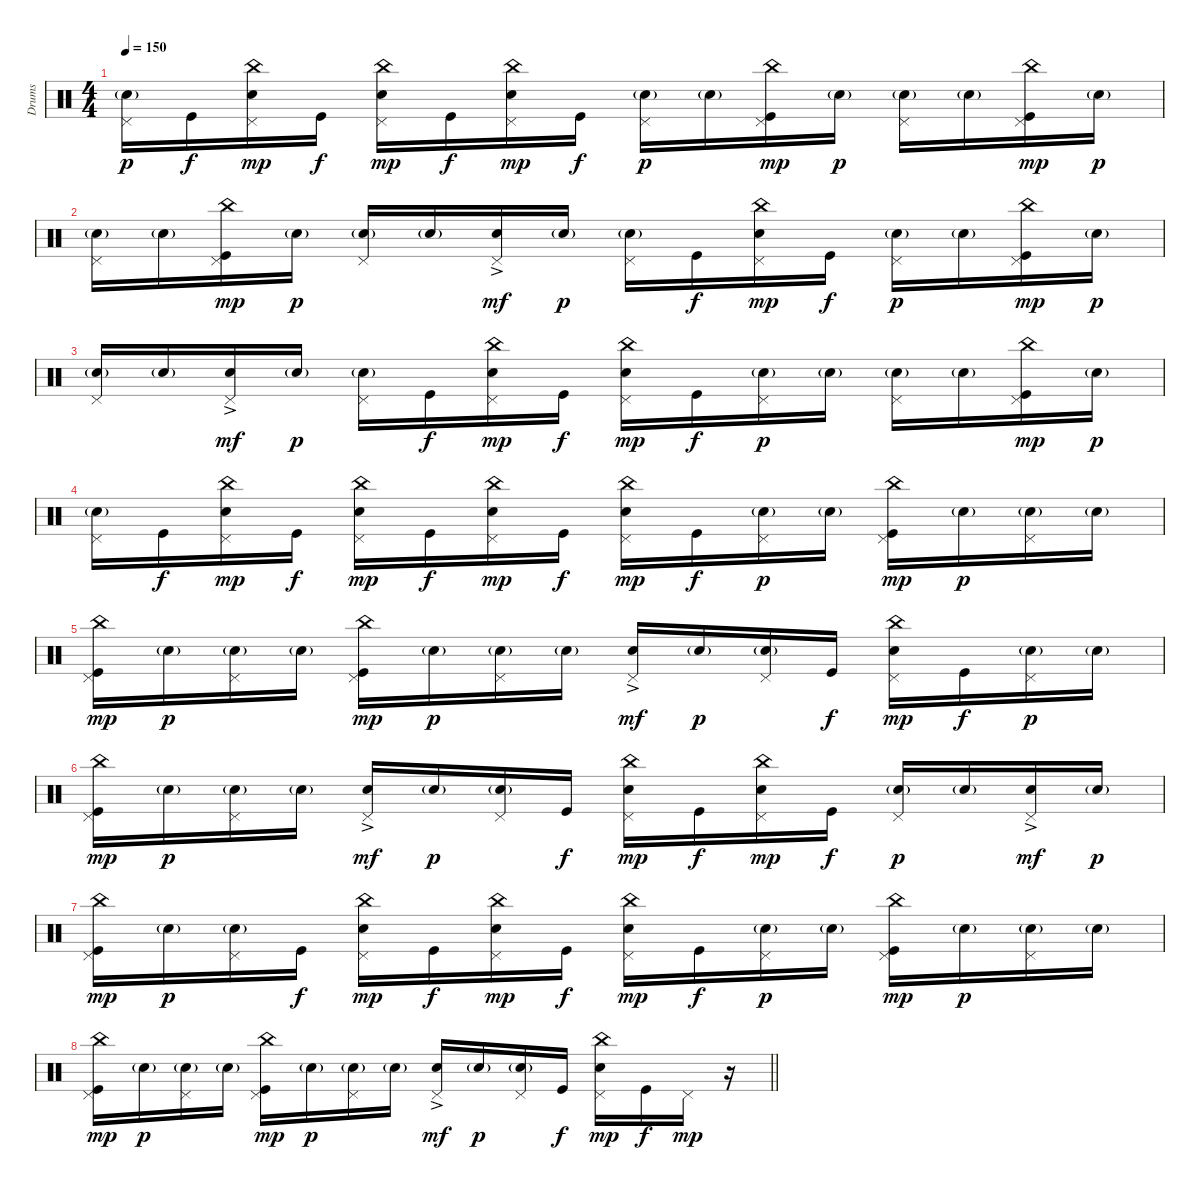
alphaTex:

\track ("Drums" "Drums") {instrument percussion}
\staff {score}
\articulation defaults
\ts (4 4)
\tempo 150
\clef neutral
\ks c
("Pedal Hi-Hat (hit)" "Electric Snare (hit)"{g}).16{dy p} "Kick (hit)".16{dy f} ("China (hit)" "Pedal Hi-Hat (hit)" "Electric Snare (hit)").16{dy mp} "Kick (hit)".16{dy f} ("China (hit)" "Pedal Hi-Hat (hit)" "Electric Snare (hit)").16{dy mp} "Kick (hit)".16{dy f} ("China (hit)" "Pedal Hi-Hat (hit)" "Electric Snare (hit)").16{dy mp} "Kick (hit)".16{dy f} ("Pedal Hi-Hat (hit)" "Electric Snare (hit)"{g}).16{dy p} "Electric Snare (hit)"{g}.16 ("China (hit)" "Pedal Hi-Hat (hit)" "Kick (hit)").16{dy mp} "Electric Snare (hit)"{g}.16{dy p} ("Pedal Hi-Hat (hit)" "Electric Snare (hit)"{g}).16 "Electric Snare (hit)"{g}.16 ("China (hit)" "Pedal Hi-Hat (hit)" "Kick (hit)").16{dy mp} "Electric Snare (hit)"{g}.16{dy p} |
("Pedal Hi-Hat (hit)" "Electric Snare (hit)"{g}).16 "Electric Snare (hit)"{g}.16 ("China (hit)" "Pedal Hi-Hat (hit)" "Kick (hit)").16{dy mp} "Electric Snare (hit)"{g}.16{dy p} ("Pedal Hi-Hat (hit)" "Electric Snare (hit)"{g}).16 "Electric Snare (hit)"{g}.16 ("Pedal Hi-Hat (hit)" "Electric Snare (hit)"{ac}).16{dy mf} "Electric Snare (hit)"{g}.16{dy p} ("Pedal Hi-Hat (hit)" "Electric Snare (hit)"{g}).16 "Kick (hit)".16{dy f} ("China (hit)" "Pedal Hi-Hat (hit)" "Electric Snare (hit)").16{dy mp} "Kick (hit)".16{dy f} ("Pedal Hi-Hat (hit)" "Electric Snare (hit)"{g}).16{dy p} "Electric Snare (hit)"{g}.16 ("China (hit)" "Pedal Hi-Hat (hit)" "Kick (hit)").16{dy mp} "Electric Snare (hit)"{g}.16{dy p} |
("Pedal Hi-Hat (hit)" "Electric Snare (hit)"{g}).16 "Electric Snare (hit)"{g}.16 ("Pedal Hi-Hat (hit)" "Electric Snare (hit)"{ac}).16{dy mf} "Electric Snare (hit)"{g}.16{dy p} ("Pedal Hi-Hat (hit)" "Electric Snare (hit)"{g}).16 "Kick (hit)".16{dy f} ("China (hit)" "Pedal Hi-Hat (hit)" "Electric Snare (hit)").16{dy mp} "Kick (hit)".16{dy f} ("China (hit)" "Pedal Hi-Hat (hit)" "Electric Snare (hit)").16{dy mp} "Kick (hit)".16{dy f} ("Pedal Hi-Hat (hit)" "Electric Snare (hit)"{g}).16{dy p} "Electric Snare (hit)"{g}.16 ("Pedal Hi-Hat (hit)" "Electric Snare (hit)"{g}).16 "Electric Snare (hit)"{g}.16 ("China (hit)" "Pedal Hi-Hat (hit)" "Kick (hit)").16{dy mp} "Electric Snare (hit)"{g}.16{dy p} |
("Pedal Hi-Hat (hit)" "Electric Snare (hit)"{g}).16 "Kick (hit)".16{dy f} ("China (hit)" "Pedal Hi-Hat (hit)" "Electric Snare (hit)").16{dy mp} "Kick (hit)".16{dy f} ("China (hit)" "Pedal Hi-Hat (hit)" "Electric Snare (hit)").16{dy mp} "Kick (hit)".16{dy f} ("China (hit)" "Pedal Hi-Hat (hit)" "Electric Snare (hit)").16{dy mp} "Kick (hit)".16{dy f} ("China (hit)" "Pedal Hi-Hat (hit)" "Electric Snare (hit)").16{dy mp} "Kick (hit)".16{dy f} ("Pedal Hi-Hat (hit)" "Electric Snare (hit)"{g}).16{dy p} "Electric Snare (hit)"{g}.16 ("China (hit)" "Pedal Hi-Hat (hit)" "Kick (hit)").16{dy mp} "Electric Snare (hit)"{g}.16{dy p} ("Pedal Hi-Hat (hit)" "Electric Snare (hit)"{g}).16 "Electric Snare (hit)"{g}.16 |
("China (hit)" "Pedal Hi-Hat (hit)" "Kick (hit)").16{dy mp} "Electric Snare (hit)"{g}.16{dy p} ("Pedal Hi-Hat (hit)" "Electric Snare (hit)"{g}).16 "Electric Snare (hit)"{g}.16 ("China (hit)" "Pedal Hi-Hat (hit)" "Kick (hit)").16{dy mp} "Electric Snare (hit)"{g}.16{dy p} ("Pedal Hi-Hat (hit)" "Electric Snare (hit)"{g}).16 "Electric Snare (hit)"{g}.16 ("Pedal Hi-Hat (hit)" "Electric Snare (hit)"{ac}).16{dy mf} "Electric Snare (hit)"{g}.16{dy p} ("Pedal Hi-Hat (hit)" "Electric Snare (hit)"{g}).16 "Kick (hit)".16{dy f} ("China (hit)" "Pedal Hi-Hat (hit)" "Electric Snare (hit)").16{dy mp} "Kick (hit)".16{dy f} ("Pedal Hi-Hat (hit)" "Electric Snare (hit)"{g}).16{dy p} "Electric Snare (hit)"{g}.16 |
("China (hit)" "Pedal Hi-Hat (hit)" "Kick (hit)").16{dy mp} "Electric Snare (hit)"{g}.16{dy p} ("Pedal Hi-Hat (hit)" "Electric Snare (hit)"{g}).16 "Electric Snare (hit)"{g}.16 ("Pedal Hi-Hat (hit)" "Electric Snare (hit)"{ac}).16{dy mf} "Electric Snare (hit)"{g}.16{dy p} ("Pedal Hi-Hat (hit)" "Electric Snare (hit)"{g}).16 "Kick (hit)".16{dy f} ("China (hit)" "Pedal Hi-Hat (hit)" "Electric Snare (hit)").16{dy mp} "Kick (hit)".16{dy f} ("China (hit)" "Pedal Hi-Hat (hit)" "Electric Snare (hit)").16{dy mp} "Kick (hit)".16{dy f} ("Pedal Hi-Hat (hit)" "Electric Snare (hit)"{g}).16{dy p} "Electric Snare (hit)"{g}.16 ("Pedal Hi-Hat (hit)" "Electric Snare (hit)"{ac}).16{dy mf} "Electric Snare (hit)"{g}.16{dy p} |
("China (hit)" "Pedal Hi-Hat (hit)" "Kick (hit)").16{dy mp} "Electric Snare (hit)"{g}.16{dy p} ("Pedal Hi-Hat (hit)" "Electric Snare (hit)"{g}).16 "Kick (hit)".16{dy f} ("China (hit)" "Pedal Hi-Hat (hit)" "Electric Snare (hit)").16{dy mp} "Kick (hit)".16{dy f} ("China (hit)" "Pedal Hi-Hat (hit)" "Electric Snare (hit)").16{dy mp} "Kick (hit)".16{dy f} ("China (hit)" "Pedal Hi-Hat (hit)" "Electric Snare (hit)").16{dy mp} "Kick (hit)".16{dy f} ("Pedal Hi-Hat (hit)" "Electric Snare (hit)"{g}).16{dy p} "Electric Snare (hit)"{g}.16 ("China (hit)" "Pedal Hi-Hat (hit)" "Kick (hit)").16{dy mp} "Electric Snare (hit)"{g}.16{dy p} ("Pedal Hi-Hat (hit)" "Electric Snare (hit)"{g}).16 "Electric Snare (hit)"{g}.16 |
\barLineRight lightlight
("China (hit)" "Pedal Hi-Hat (hit)" "Kick (hit)").16{dy mp} "Electric Snare (hit)"{g}.16{dy p} ("Pedal Hi-Hat (hit)" "Electric Snare (hit)"{g}).16 "Electric Snare (hit)"{g}.16 ("China (hit)" "Pedal Hi-Hat (hit)" "Kick (hit)").16{dy mp} "Electric Snare (hit)"{g}.16{dy p} ("Pedal Hi-Hat (hit)" "Electric Snare (hit)"{g}).16 "Electric Snare (hit)"{g}.16 ("Pedal Hi-Hat (hit)" "Electric Snare (hit)"{ac}).16{dy mf} "Electric Snare (hit)"{g}.16{dy p} ("Pedal Hi-Hat (hit)" "Electric Snare (hit)"{g}).16 "Kick (hit)".16{dy f} ("China (hit)" "Pedal Hi-Hat (hit)" "Electric Snare (hit)").16{dy mp} "Kick (hit)".16{dy f} "Pedal Hi-Hat (hit)".16{dy mp} r.16
